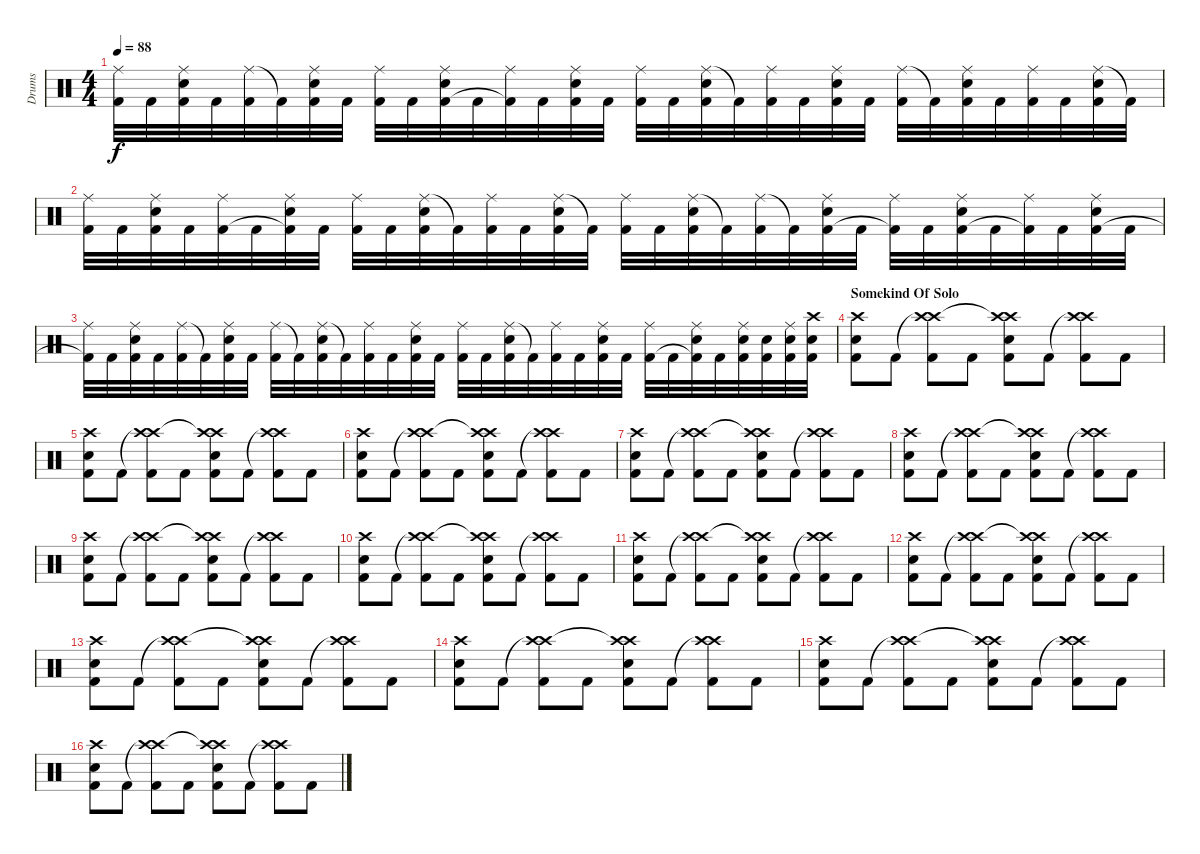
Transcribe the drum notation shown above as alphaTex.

\track ("Drums" "Drums") {instrument percussion}
\staff {score}
\articulation defaults
\ts (4 4)
\tempo 88
\clef neutral
\ks c
("Ride (middle)" "Kick (hit) 2").32{dy f} "Kick (hit) 2".32 ("Ride (middle)" "Kick (hit) 2" "Electric Snare (hit)").32 "Kick (hit) 2".32 ("Ride (middle)" "Kick (hit) 2").32 "Kick (hit) 2"{t}.32 ("Ride (middle)" "Kick (hit) 2" "Electric Snare (hit)").32 "Kick (hit) 2".32 ("Ride (middle)" "Kick (hit) 2").32 "Kick (hit) 2".32 ("Ride (middle)" "Kick (hit) 2" "Electric Snare (hit)").32 "Kick (hit) 2".32 ("Ride (middle)" "Kick (hit) 2"{t}).32 "Kick (hit) 2".32 ("Ride (middle)" "Kick (hit) 2" "Electric Snare (hit)").32 "Kick (hit) 2".32 ("Ride (middle)" "Kick (hit) 2").32 "Kick (hit) 2".32 ("Ride (middle)" "Kick (hit) 2" "Electric Snare (hit)").32 "Kick (hit) 2"{t}.32 ("Ride (middle)" "Kick (hit) 2").32 "Kick (hit) 2".32 ("Ride (middle)" "Kick (hit) 2" "Electric Snare (hit)").32 "Kick (hit) 2".32 ("Ride (middle)" "Kick (hit) 2").32 "Kick (hit) 2"{t}.32 ("Ride (middle)" "Kick (hit) 2" "Electric Snare (hit)").32 "Kick (hit) 2".32 ("Ride (middle)" "Kick (hit) 2").32 "Kick (hit) 2".32 ("Ride (middle)" "Kick (hit) 2" "Electric Snare (hit)").32 "Kick (hit) 2"{t}.32 |
("Ride (middle)" "Kick (hit) 2").32 "Kick (hit) 2".32 ("Ride (middle)" "Kick (hit) 2" "Electric Snare (hit)").32 "Kick (hit) 2".32 ("Ride (middle)" "Kick (hit) 2").32 "Kick (hit) 2".32 ("Ride (middle)" "Kick (hit) 2"{t} "Electric Snare (hit)").32 "Kick (hit) 2".32 ("Ride (middle)" "Kick (hit) 2").32 "Kick (hit) 2".32 ("Ride (middle)" "Kick (hit) 2" "Electric Snare (hit)").32 "Kick (hit) 2"{t}.32 ("Ride (middle)" "Kick (hit) 2").32 "Kick (hit) 2".32 ("Ride (middle)" "Kick (hit) 2" "Electric Snare (hit)").32 "Kick (hit) 2"{t}.32 ("Ride (middle)" "Kick (hit) 2").32 "Kick (hit) 2".32 ("Ride (middle)" "Kick (hit) 2" "Electric Snare (hit)").32 "Kick (hit) 2"{t}.32 ("Ride (middle)" "Kick (hit) 2").32 "Kick (hit) 2"{t}.32 ("Ride (middle)" "Kick (hit) 2" "Electric Snare (hit)").32 "Kick (hit) 2".32 ("Ride (middle)" "Kick (hit) 2"{t}).32 "Kick (hit) 2".32 ("Ride (middle)" "Kick (hit) 2" "Electric Snare (hit)").32 "Kick (hit) 2".32 ("Ride (middle)" "Kick (hit) 2"{t}).32 "Kick (hit) 2".32 ("Ride (middle)" "Kick (hit) 2" "Electric Snare (hit)").32 "Kick (hit) 2".32 |
("Ride (middle)" "Kick (hit) 2"{t}).32 "Kick (hit) 2".32 ("Ride (middle)" "Kick (hit) 2" "Electric Snare (hit)").32 "Kick (hit) 2".32 ("Ride (middle)" "Kick (hit) 2").32 "Kick (hit) 2"{t}.32 ("Ride (middle)" "Kick (hit) 2" "Electric Snare (hit)").32 "Kick (hit) 2".32 ("Ride (middle)" "Kick (hit) 2").32 "Kick (hit) 2"{t}.32 ("Ride (middle)" "Kick (hit) 2" "Electric Snare (hit)").32 "Kick (hit) 2"{t}.32 ("Ride (middle)" "Kick (hit) 2").32 "Kick (hit) 2".32 ("Ride (middle)" "Kick (hit) 2" "Electric Snare (hit)").32 "Kick (hit) 2".32 ("Ride (middle)" "Kick (hit) 2").32 "Kick (hit) 2".32 ("Ride (middle)" "Kick (hit) 2" "Electric Snare (hit)").32 "Kick (hit) 2"{t}.32 ("Ride (middle)" "Kick (hit) 2").32 "Kick (hit) 2".32 ("Ride (middle)" "Kick (hit) 2" "Electric Snare (hit)").32 "Kick (hit) 2".32 ("Ride (middle)" "Kick (hit) 2").32 "Kick (hit) 2".32 ("Ride (middle)" "Kick (hit) 2"{t} "Electric Snare (hit)").32 "Kick (hit) 2".32 ("Ride (middle)" "Kick (hit) 2" "Electric Snare (hit)").32 ("Kick (hit) 2" "Electric Snare (hit)").32 ("Ride (middle)" "Kick (hit) 2" "Electric Snare (hit)").32 ("Crash high (hit)" "Kick (hit) 2" "Electric Snare (hit)").32 |
\section ("" "Somekind Of Solo")
("Crash high (hit)" "Kick (hit) 2" "Electric Snare (hit)").8 "Kick (hit) 2".8 ("Crash high (hit)"{t} "Crash high (hit)" "Kick (hit) 2").8 "Kick (hit) 2".8 ("Crash high (hit)" "Crash high (hit)"{t} "Kick (hit) 2" "Electric Snare (hit)").8 "Kick (hit) 2".8 ("Crash high (hit)"{t} "Crash high (hit)" "Kick (hit) 2").8 "Kick (hit) 2".8 |
("Crash high (hit)" "Kick (hit) 2" "Electric Snare (hit)").8 "Kick (hit) 2".8 ("Crash high (hit)"{t} "Crash high (hit)" "Kick (hit) 2").8 "Kick (hit) 2".8 ("Crash high (hit)" "Crash high (hit)"{t} "Kick (hit) 2" "Electric Snare (hit)").8 "Kick (hit) 2".8 ("Crash high (hit)"{t} "Crash high (hit)" "Kick (hit) 2").8 "Kick (hit) 2".8 |
("Crash high (hit)" "Kick (hit) 2" "Electric Snare (hit)").8 "Kick (hit) 2".8 ("Crash high (hit)"{t} "Crash high (hit)" "Kick (hit) 2").8 "Kick (hit) 2".8 ("Crash high (hit)" "Crash high (hit)"{t} "Kick (hit) 2" "Electric Snare (hit)").8 "Kick (hit) 2".8 ("Crash high (hit)"{t} "Crash high (hit)" "Kick (hit) 2").8 "Kick (hit) 2".8 |
("Crash high (hit)" "Kick (hit) 2" "Electric Snare (hit)").8 "Kick (hit) 2".8 ("Crash high (hit)"{t} "Crash high (hit)" "Kick (hit) 2").8 "Kick (hit) 2".8 ("Crash high (hit)" "Crash high (hit)"{t} "Kick (hit) 2" "Electric Snare (hit)").8 "Kick (hit) 2".8 ("Crash high (hit)"{t} "Crash high (hit)" "Kick (hit) 2").8 "Kick (hit) 2".8 |
("Crash high (hit)" "Kick (hit) 2" "Electric Snare (hit)").8 "Kick (hit) 2".8 ("Crash high (hit)"{t} "Crash high (hit)" "Kick (hit) 2").8 "Kick (hit) 2".8 ("Crash high (hit)" "Crash high (hit)"{t} "Kick (hit) 2" "Electric Snare (hit)").8 "Kick (hit) 2".8 ("Crash high (hit)"{t} "Crash high (hit)" "Kick (hit) 2").8 "Kick (hit) 2".8 |
("Crash high (hit)" "Kick (hit) 2" "Electric Snare (hit)").8 "Kick (hit) 2".8 ("Crash high (hit)"{t} "Crash high (hit)" "Kick (hit) 2").8 "Kick (hit) 2".8 ("Crash high (hit)" "Crash high (hit)"{t} "Kick (hit) 2" "Electric Snare (hit)").8 "Kick (hit) 2".8 ("Crash high (hit)"{t} "Crash high (hit)" "Kick (hit) 2").8 "Kick (hit) 2".8 |
("Crash high (hit)" "Kick (hit) 2" "Electric Snare (hit)").8 "Kick (hit) 2".8 ("Crash high (hit)"{t} "Crash high (hit)" "Kick (hit) 2").8 "Kick (hit) 2".8 ("Crash high (hit)" "Crash high (hit)"{t} "Kick (hit) 2" "Electric Snare (hit)").8 "Kick (hit) 2".8 ("Crash high (hit)"{t} "Crash high (hit)" "Kick (hit) 2").8 "Kick (hit) 2".8 |
("Crash high (hit)" "Kick (hit) 2" "Electric Snare (hit)").8 "Kick (hit) 2".8 ("Crash high (hit)"{t} "Crash high (hit)" "Kick (hit) 2").8 "Kick (hit) 2".8 ("Crash high (hit)" "Crash high (hit)"{t} "Kick (hit) 2" "Electric Snare (hit)").8 "Kick (hit) 2".8 ("Crash high (hit)"{t} "Crash high (hit)" "Kick (hit) 2").8 "Kick (hit) 2".8 |
("Crash high (hit)" "Kick (hit) 2" "Electric Snare (hit)").8 "Kick (hit) 2".8 ("Crash high (hit)"{t} "Crash high (hit)" "Kick (hit) 2").8 "Kick (hit) 2".8 ("Crash high (hit)" "Crash high (hit)"{t} "Kick (hit) 2" "Electric Snare (hit)").8 "Kick (hit) 2".8 ("Crash high (hit)"{t} "Crash high (hit)" "Kick (hit) 2").8 "Kick (hit) 2".8 |
("Crash high (hit)" "Kick (hit) 2" "Electric Snare (hit)").8 "Kick (hit) 2".8 ("Crash high (hit)"{t} "Crash high (hit)" "Kick (hit) 2").8 "Kick (hit) 2".8 ("Crash high (hit)" "Crash high (hit)"{t} "Kick (hit) 2" "Electric Snare (hit)").8 "Kick (hit) 2".8 ("Crash high (hit)"{t} "Crash high (hit)" "Kick (hit) 2").8 "Kick (hit) 2".8 |
("Crash high (hit)" "Kick (hit) 2" "Electric Snare (hit)").8 "Kick (hit) 2".8 ("Crash high (hit)"{t} "Crash high (hit)" "Kick (hit) 2").8 "Kick (hit) 2".8 ("Crash high (hit)" "Crash high (hit)"{t} "Kick (hit) 2" "Electric Snare (hit)").8 "Kick (hit) 2".8 ("Crash high (hit)"{t} "Crash high (hit)" "Kick (hit) 2").8 "Kick (hit) 2".8 |
("Crash high (hit)" "Kick (hit) 2" "Electric Snare (hit)").8 "Kick (hit) 2".8 ("Crash high (hit)"{t} "Crash high (hit)" "Kick (hit) 2").8 "Kick (hit) 2".8 ("Crash high (hit)" "Crash high (hit)"{t} "Kick (hit) 2" "Electric Snare (hit)").8 "Kick (hit) 2".8 ("Crash high (hit)"{t} "Crash high (hit)" "Kick (hit) 2").8 "Kick (hit) 2".8 |
("Crash high (hit)" "Kick (hit) 2" "Electric Snare (hit)").8 "Kick (hit) 2".8 ("Crash high (hit)"{t} "Crash high (hit)" "Kick (hit) 2").8 "Kick (hit) 2".8 ("Crash high (hit)" "Crash high (hit)"{t} "Kick (hit) 2" "Electric Snare (hit)").8 "Kick (hit) 2".8 ("Crash high (hit)"{t} "Crash high (hit)" "Kick (hit) 2").8 "Kick (hit) 2".8
